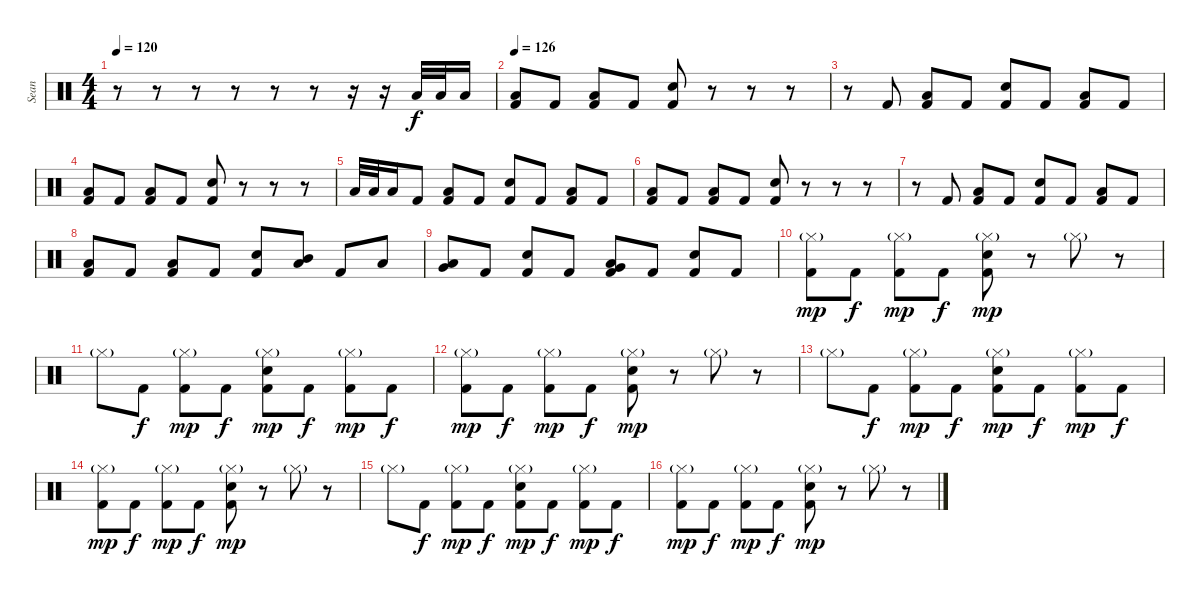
\track ("Sean" "Sean") {instrument percussion}
\staff {score}
\articulation defaults
\ts (4 4)
\tempo 120
\clef neutral
\ks c
r.8{dy mp} r.8 r.8 r.8 r.8 r.8 r.16 r.16 "Low Floor Tom (hit)".32{dy f} "Low Floor Tom (hit)".32 "Low Floor Tom (hit)".16 |
\tempo 126
("Low Floor Tom (hit)" "Kick (hit) 2").8 "Kick (hit) 2".8 ("Low Floor Tom (hit)" "Kick (hit) 2").8 "Kick (hit) 2".8 ("Electric Snare (hit)" "Kick (hit) 2").8 r.8 r.8 r.8 |
r.8 "Kick (hit) 2".8 ("Low Floor Tom (hit)" "Kick (hit) 2").8 "Kick (hit) 2".8 ("Electric Snare (hit)" "Kick (hit) 2").8 "Kick (hit) 2".8 ("Low Floor Tom (hit)" "Kick (hit) 2").8 "Kick (hit) 2".8 |
("Low Floor Tom (hit)" "Kick (hit) 2").8 "Kick (hit) 2".8 ("Low Floor Tom (hit)" "Kick (hit) 2").8 "Kick (hit) 2".8 ("Electric Snare (hit)" "Kick (hit) 2").8 r.8 r.8 r.8 |
"Low Floor Tom (hit)".32 "Low Floor Tom (hit)".32 "Low Floor Tom (hit)".16 "Kick (hit) 2".8 ("Low Floor Tom (hit)" "Kick (hit) 2").8 "Kick (hit) 2".8 ("Electric Snare (hit)" "Kick (hit) 2").8 "Kick (hit) 2".8 ("Low Floor Tom (hit)" "Kick (hit) 2").8 "Kick (hit) 2".8 |
("Low Floor Tom (hit)" "Kick (hit) 2").8 "Kick (hit) 2".8 ("Low Floor Tom (hit)" "Kick (hit) 2").8 "Kick (hit) 2".8 ("Electric Snare (hit)" "Kick (hit) 2").8 r.8 r.8 r.8 |
r.8 "Kick (hit) 2".8 ("Low Floor Tom (hit)" "Kick (hit) 2").8 "Kick (hit) 2".8 ("Electric Snare (hit)" "Kick (hit) 2").8 "Kick (hit) 2".8 ("Low Floor Tom (hit)" "Kick (hit) 2").8 "Kick (hit) 2".8 |
("Low Floor Tom (hit)" "Kick (hit) 2").8 "Kick (hit) 2".8 ("Low Floor Tom (hit)" "Kick (hit) 2").8 "Kick (hit) 2".8 ("Electric Snare (hit)" "Kick (hit) 2").8 ("Mid Tom (hit)" "Low Tom (hit)").8 "Kick (hit) 2".8 "Low Tom (hit)".8 |
("Very Low Tom (hit)" "Low Tom (hit)").8 "Kick (hit) 2".8 ("Electric Snare (hit)" "Kick (hit) 2").8 "Kick (hit) 2".8 ("Very Low Tom (hit)" "Low Tom (hit)" "Kick (hit) 2").8 "Kick (hit) 2".8 ("Electric Snare (hit)" "Kick (hit) 2").8 "Kick (hit) 2".8 |
("Hi-Hat (closed)"{g} "Kick (hit) 2").8{dy mp} "Kick (hit) 2".8{dy f} ("Hi-Hat (closed)"{g} "Kick (hit) 2").8{dy mp} "Kick (hit) 2".8{dy f} ("Hi-Hat (closed)"{g} "Electric Snare (hit)" "Kick (hit) 2").8{dy mp} r.8 "Hi-Hat (closed)"{g}.8 r.8 |
"Hi-Hat (closed)"{g}.8 "Kick (hit) 2".8{dy f} ("Hi-Hat (closed)"{g} "Kick (hit) 2").8{dy mp} "Kick (hit) 2".8{dy f} ("Hi-Hat (closed)"{g} "Electric Snare (hit)" "Kick (hit) 2").8{dy mp} "Kick (hit) 2".8{dy f} ("Hi-Hat (closed)"{g} "Kick (hit) 2").8{dy mp} "Kick (hit) 2".8{dy f} |
("Hi-Hat (closed)"{g} "Kick (hit) 2").8{dy mp} "Kick (hit) 2".8{dy f} ("Hi-Hat (closed)"{g} "Kick (hit) 2").8{dy mp} "Kick (hit) 2".8{dy f} ("Hi-Hat (closed)"{g} "Electric Snare (hit)" "Kick (hit) 2").8{dy mp} r.8 "Hi-Hat (closed)"{g}.8 r.8 |
"Hi-Hat (closed)"{g}.8 "Kick (hit) 2".8{dy f} ("Hi-Hat (closed)"{g} "Kick (hit) 2").8{dy mp} "Kick (hit) 2".8{dy f} ("Hi-Hat (closed)"{g} "Electric Snare (hit)" "Kick (hit) 2").8{dy mp} "Kick (hit) 2".8{dy f} ("Hi-Hat (closed)"{g} "Kick (hit) 2").8{dy mp} "Kick (hit) 2".8{dy f} |
("Hi-Hat (closed)"{g} "Kick (hit) 2").8{dy mp} "Kick (hit) 2".8{dy f} ("Hi-Hat (closed)"{g} "Kick (hit) 2").8{dy mp} "Kick (hit) 2".8{dy f} ("Hi-Hat (closed)"{g} "Electric Snare (hit)" "Kick (hit) 2").8{dy mp} r.8 "Hi-Hat (closed)"{g}.8 r.8 |
"Hi-Hat (closed)"{g}.8 "Kick (hit) 2".8{dy f} ("Hi-Hat (closed)"{g} "Kick (hit) 2").8{dy mp} "Kick (hit) 2".8{dy f} ("Hi-Hat (closed)"{g} "Electric Snare (hit)" "Kick (hit) 2").8{dy mp} "Kick (hit) 2".8{dy f} ("Hi-Hat (closed)"{g} "Kick (hit) 2").8{dy mp} "Kick (hit) 2".8{dy f} |
("Hi-Hat (closed)"{g} "Kick (hit) 2").8{dy mp} "Kick (hit) 2".8{dy f} ("Hi-Hat (closed)"{g} "Kick (hit) 2").8{dy mp} "Kick (hit) 2".8{dy f} ("Hi-Hat (closed)"{g} "Electric Snare (hit)" "Kick (hit) 2").8{dy mp} r.8 "Hi-Hat (closed)"{g}.8 r.8
